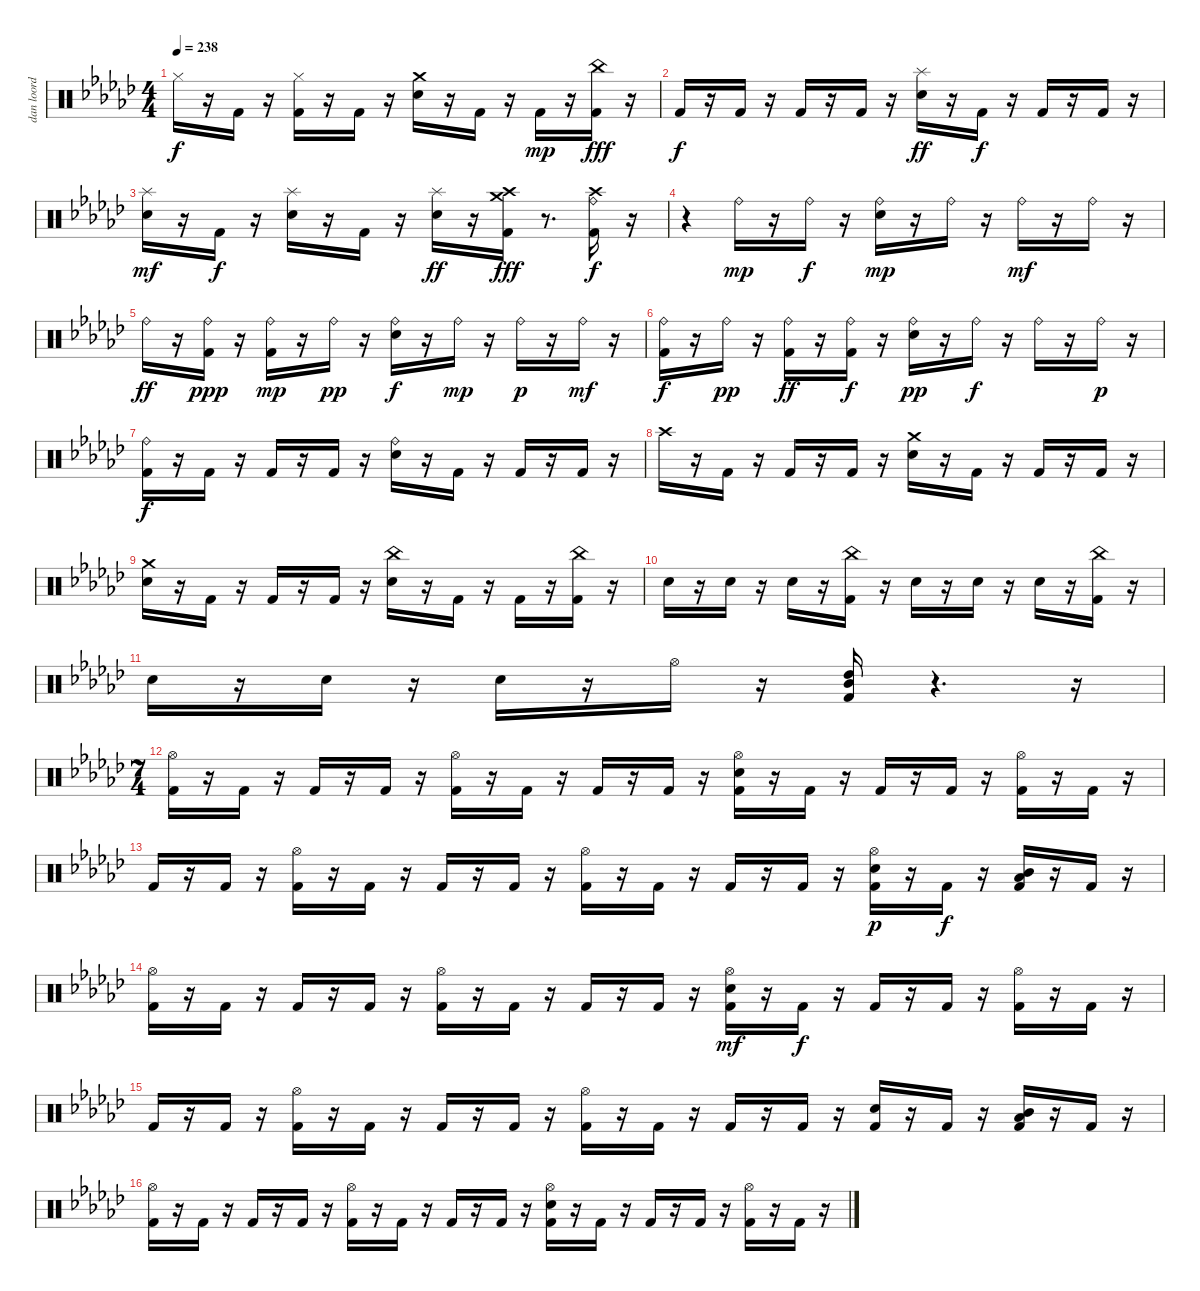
\track ("dan loord foord" "dan loord ") {instrument percussion}
\staff {score}
\articulation defaults
\ts (4 4)
\tempo 238
\clef neutral
\ks gb "Hi-Hat (closed)".16{dy f}
r.16 "Kick (hit) 2".16 r.16 ("Kick (hit) 2" "Hi-Hat (closed)").16 r.16 "Kick (hit) 2".16 r.16 ("Snare (hit) 2" "Crash medium (hit)").16 r.16 "Kick (hit) 2".16 r.16 "Kick (hit) 2".16{dy mp} r.16 ("Kick (hit) 2" "China (hit)").16{dy fff} r.16 |
"Kick (hit) 2".16{dy f} r.16 "Kick (hit) 2".16 r.16 "Kick (hit) 2".16 r.16 "Kick (hit) 2".16 r.16 ("Snare (hit) 2" "Splash (hit)").16{dy ff} r.16 "Kick (hit) 2".16{dy f} r.16 "Kick (hit) 2".16 r.16 "Kick (hit) 2".16 r.16 |
("Snare (hit) 2" "Splash (hit)").16{dy mf} r.16 "Kick (hit) 2".16{dy f} r.16 ("Snare (hit) 2" "Splash (hit)").16 r.16 "Kick (hit) 2".16 r.16 ("Snare (hit) 2" "Splash (hit)").16{dy ff} r.16 ("Kick (hit) 2" "Crash high (hit)" "Crash medium (hit)").16{dy fff} r.8{d} ("Kick (hit) 2" "Crash high (hit)" "Ride (bell)").16{dy f} r.16 |
r.4 "Ride (bell)".16{dy mp} r.16 "Ride (bell)".16{dy f} r.16 ("Snare (hit) 2" "Ride (bell)").16{dy mp} r.16 "Ride (bell)".16 r.16 "Ride (bell)".16{dy mf} r.16 "Ride (bell)".16 r.16 |
"Ride (bell)".16{dy ff} r.16 ("Kick (hit) 2" "Ride (bell)").16{dy ppp} r.16 ("Kick (hit) 2" "Ride (bell)").16{dy mp} r.16 "Ride (bell)".16{dy pp} r.16 ("Snare (hit) 2" "Ride (bell)").16{dy f} r.16 "Ride (bell)".16{dy mp} r.16 "Ride (bell)".16{dy p} r.16 "Ride (bell)".16{dy mf} r.16 |
("Kick (hit) 2" "Ride (bell)").16{dy f} r.16 "Ride (bell)".16{dy pp} r.16 ("Kick (hit) 2" "Ride (bell)").16{dy ff} r.16 ("Kick (hit) 2" "Ride (bell)").16{dy f} r.16 ("Snare (hit) 2" "Ride (bell)").16{dy pp} r.16 "Ride (bell)".16{dy f} r.16 "Ride (bell)".16 r.16 "Ride (bell)".16{dy p} r.16 |
("Kick (hit) 2" "Ride (bell)").16{dy f} r.16 "Kick (hit) 2".16 r.16 "Kick (hit) 2".16 r.16 "Kick (hit) 2".16 r.16 ("Snare (hit) 2" "Ride (bell)").16 r.16 "Kick (hit) 2".16 r.16 "Kick (hit) 2".16 r.16 "Kick (hit) 2".16 r.16 |
"Crash high (hit)".16 r.16 "Kick (hit) 2".16 r.16 "Kick (hit) 2".16 r.16 "Kick (hit) 2".16 r.16 ("Snare (hit) 2" "Crash medium (hit)").16 r.16 "Kick (hit) 2".16 r.16 "Kick (hit) 2".16 r.16 "Kick (hit) 2".16 r.16 |
("Snare (hit) 2" "Crash medium (hit)").16 r.16 "Kick (hit) 2".16 r.16 "Kick (hit) 2".16 r.16 "Kick (hit) 2".16 r.16 ("Snare (hit) 2" "China (hit)").16 r.16 "Kick (hit) 2".16 r.16 "Kick (hit) 2".16 r.16 ("Kick (hit) 2" "China (hit)").16 r.16 |
"Snare (hit) 2".16 r.16 "Snare (hit) 2".16 r.16 "Snare (hit) 2".16 r.16 ("Kick (hit) 2" "China (hit)").16 r.16 "Snare (hit) 2".16 r.16 "Snare (hit) 2".16 r.16 "Snare (hit) 2".16 r.16 ("Kick (hit) 2" "China (hit)").16 r.16 |
"Snare (hit) 2".16 r.16 "Snare (hit) 2".16 r.16 "Snare (hit) 2".16 r.16 "Hi-Hat (open)".16 r.16 ("Kick (hit) 2" "Mid Tom (hit)" "High Tom (hit)").16 r.4{d} r.16 |
\ts (7 4)
("Kick (hit) 2" "Hi-Hat (open)").16 r.16 "Kick (hit) 2".16 r.16 "Kick (hit) 2".16 r.16 "Kick (hit) 2".16 r.16 ("Kick (hit) 2" "Hi-Hat (open)").16 r.16 "Kick (hit) 2".16 r.16 "Kick (hit) 2".16 r.16 "Kick (hit) 2".16 r.16 ("Kick (hit) 2" "Snare (hit) 2" "Hi-Hat (open)").16 r.16 "Kick (hit) 2".16 r.16 "Kick (hit) 2".16 r.16 "Kick (hit) 2".16 r.16 ("Kick (hit) 2" "Hi-Hat (open)").16 r.16 "Kick (hit) 2".16 r.16 |
"Kick (hit) 2".16 r.16 "Kick (hit) 2".16 r.16 ("Kick (hit) 2" "Hi-Hat (open)").16 r.16 "Kick (hit) 2".16 r.16 "Kick (hit) 2".16 r.16 "Kick (hit) 2".16 r.16 ("Kick (hit) 2" "Hi-Hat (open)").16 r.16 "Kick (hit) 2".16 r.16 "Kick (hit) 2".16 r.16 "Kick (hit) 2".16 r.16 ("Kick (hit) 2" "Snare (hit) 2" "Hi-Hat (open)").16{dy p} r.16 "Kick (hit) 2".16{dy f} r.16 ("Kick (hit) 2" "Low Floor Tom (hit)" "Mid Tom (hit)").16 r.16 "Kick (hit) 2".16 r.16 |
("Kick (hit) 2" "Hi-Hat (open)").16 r.16 "Kick (hit) 2".16 r.16 "Kick (hit) 2".16 r.16 "Kick (hit) 2".16 r.16 ("Kick (hit) 2" "Hi-Hat (open)").16 r.16 "Kick (hit) 2".16 r.16 "Kick (hit) 2".16 r.16 "Kick (hit) 2".16 r.16 ("Kick (hit) 2" "Snare (hit) 2" "Hi-Hat (open)").16{dy mf} r.16 "Kick (hit) 2".16{dy f} r.16 "Kick (hit) 2".16 r.16 "Kick (hit) 2".16 r.16 ("Kick (hit) 2" "Hi-Hat (open)").16 r.16 "Kick (hit) 2".16 r.16 |
"Kick (hit) 2".16 r.16 "Kick (hit) 2".16 r.16 ("Kick (hit) 2" "Hi-Hat (open)").16 r.16 "Kick (hit) 2".16 r.16 "Kick (hit) 2".16 r.16 "Kick (hit) 2".16 r.16 ("Kick (hit) 2" "Hi-Hat (open)").16 r.16 "Kick (hit) 2".16 r.16 "Kick (hit) 2".16 r.16 "Kick (hit) 2".16 r.16 ("Kick (hit) 2" "Snare (hit) 2").16 r.16 "Kick (hit) 2".16 r.16 ("Kick (hit) 2" "Low Floor Tom (hit)" "Mid Tom (hit)").16 r.16 "Kick (hit) 2".16 r.16 |
("Kick (hit) 2" "Hi-Hat (open)").16 r.16 "Kick (hit) 2".16 r.16 "Kick (hit) 2".16 r.16 "Kick (hit) 2".16 r.16 ("Kick (hit) 2" "Hi-Hat (open)").16 r.16 "Kick (hit) 2".16 r.16 "Kick (hit) 2".16 r.16 "Kick (hit) 2".16 r.16 ("Kick (hit) 2" "Snare (hit) 2" "Hi-Hat (open)").16 r.16 "Kick (hit) 2".16 r.16 "Kick (hit) 2".16 r.16 "Kick (hit) 2".16 r.16 ("Kick (hit) 2" "Hi-Hat (open)").16 r.16 "Kick (hit) 2".16 r.16
